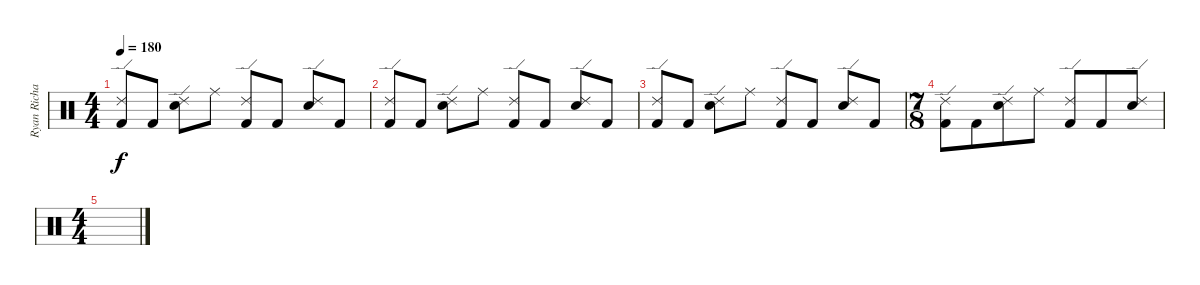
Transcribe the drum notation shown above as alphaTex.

\track ("Ryan Richards" "Ryan Richa") {instrument percussion}
\staff {score}
\articulation defaults
\ts (4 4)
\tempo 180
\clef neutral
\ks c
("Ride (edge) 2" "Kick (hit) 2").8{dy f} "Kick (hit) 2".8 ("Ride (edge) 2" "Electric Snare (hit)").8 "Ride (middle)".8 ("Ride (edge) 2" "Kick (hit) 2").8 "Kick (hit) 2".8 ("Ride (edge) 2" "Electric Snare (hit)").8 "Kick (hit) 2".8 |
("Ride (edge) 2" "Kick (hit) 2").8 "Kick (hit) 2".8 ("Ride (edge) 2" "Electric Snare (hit)").8 "Ride (middle)".8 ("Ride (edge) 2" "Kick (hit) 2").8 "Kick (hit) 2".8 ("Ride (edge) 2" "Electric Snare (hit)").8 "Kick (hit) 2".8 |
("Ride (edge) 2" "Kick (hit) 2").8 "Kick (hit) 2".8 ("Ride (edge) 2" "Electric Snare (hit)").8 "Ride (middle)".8 ("Ride (edge) 2" "Kick (hit) 2").8 "Kick (hit) 2".8 ("Ride (edge) 2" "Electric Snare (hit)").8 "Kick (hit) 2".8 |
\ts (7 8)
("Ride (edge) 2" "Kick (hit) 2").8 "Kick (hit) 2".8 ("Ride (edge) 2" "Electric Snare (hit)").8 "Ride (middle)".8 ("Ride (edge) 2" "Kick (hit) 2").8 "Kick (hit) 2".8 ("Ride (edge) 2" "Electric Snare (hit)").8 |
\ts (4 4)
